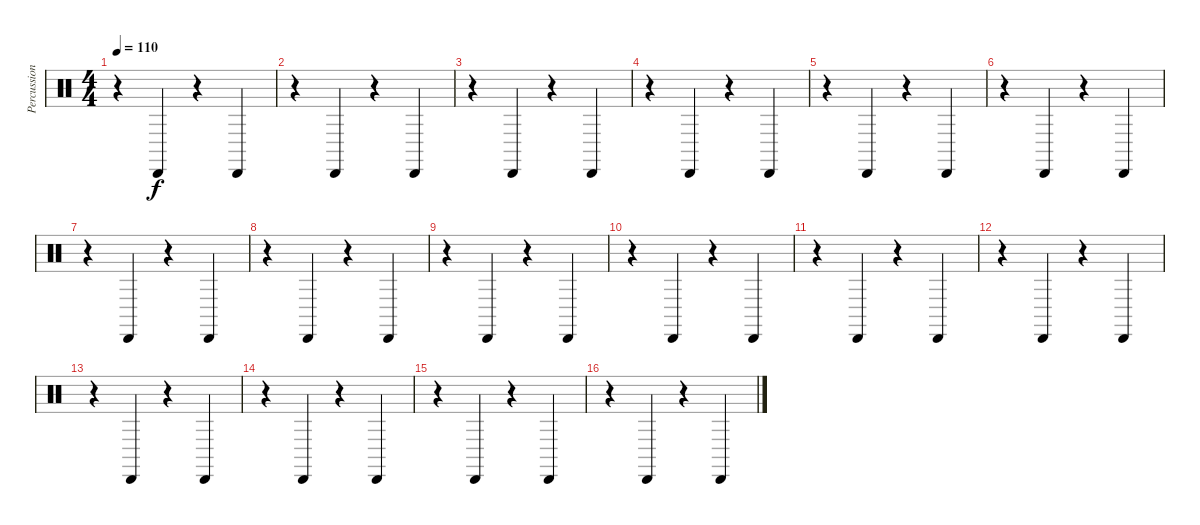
\track ("Percussion" "Percussion") {instrument percussion}
\staff {score}
\articulation defaults
\ts (4 4)
\tempo 110
\clef neutral
\ks c
r.4{dy f} "Cabasa (hit)".4 r.4 "Cabasa (hit)".4 |
r.4 "Cabasa (hit)".4 r.4 "Cabasa (hit)".4 |
r.4 "Cabasa (hit)".4 r.4 "Cabasa (hit)".4 |
r.4 "Cabasa (hit)".4 r.4 "Cabasa (hit)".4 |
r.4 "Cabasa (hit)".4 r.4 "Cabasa (hit)".4 |
r.4 "Cabasa (hit)".4 r.4 "Cabasa (hit)".4 |
r.4 "Cabasa (hit)".4 r.4 "Cabasa (hit)".4 |
r.4 "Cabasa (hit)".4 r.4 "Cabasa (hit)".4 |
r.4 "Cabasa (hit)".4 r.4 "Cabasa (hit)".4 |
r.4 "Cabasa (hit)".4 r.4 "Cabasa (hit)".4 |
r.4 "Cabasa (hit)".4 r.4 "Cabasa (hit)".4 |
r.4 "Cabasa (hit)".4 r.4 "Cabasa (hit)".4 |
r.4 "Cabasa (hit)".4 r.4 "Cabasa (hit)".4 |
r.4 "Cabasa (hit)".4 r.4 "Cabasa (hit)".4 |
r.4 "Cabasa (hit)".4 r.4 "Cabasa (hit)".4 |
r.4 "Cabasa (hit)".4 r.4 "Cabasa (hit)".4
